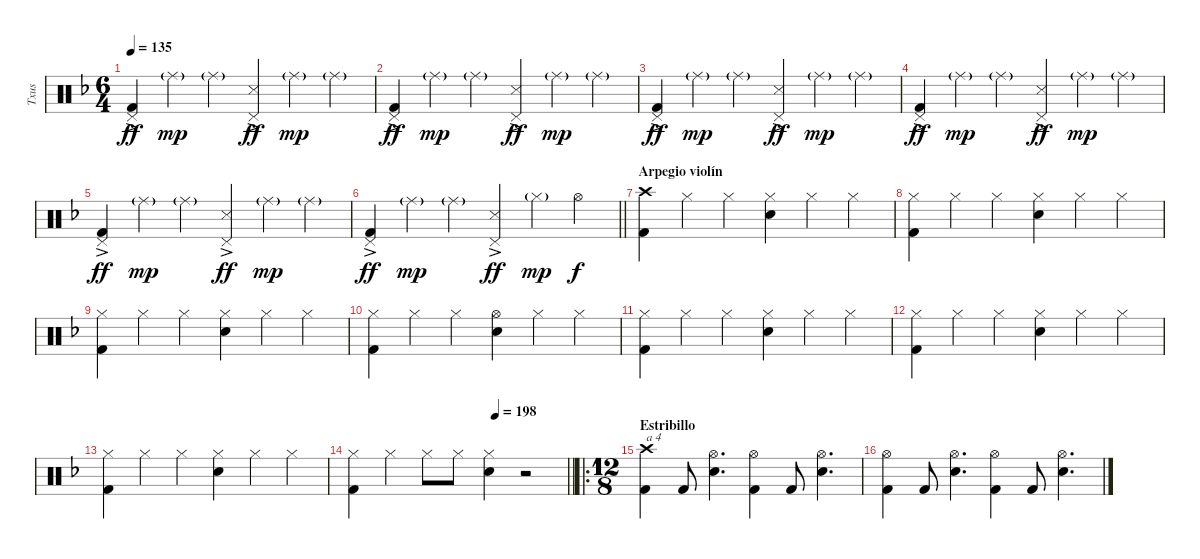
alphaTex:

\track ("Txus" "Txus") {instrument percussion}
\staff {score}
\articulation defaults
\ts (6 4)
\tempo 135
\clef neutral
\ks dminor
("Pedal Hi-Hat (hit)"{ac} "Kick (hit) 2").4{dy ff} "Ride (middle)"{g}.4{dy mp} "Ride (middle)"{g}.4 ("Pedal Hi-Hat (hit)"{ac} "Snare (side stick) 3").4{dy ff} "Ride (middle)"{g}.4{dy mp} "Ride (middle)"{g}.4 |
("Pedal Hi-Hat (hit)"{ac} "Kick (hit) 2").4{dy ff} "Ride (middle)"{g}.4{dy mp} "Ride (middle)"{g}.4 ("Pedal Hi-Hat (hit)"{ac} "Snare (side stick) 3").4{dy ff} "Ride (middle)"{g}.4{dy mp} "Ride (middle)"{g}.4 |
("Pedal Hi-Hat (hit)"{ac} "Kick (hit) 2").4{dy ff} "Ride (middle)"{g}.4{dy mp} "Ride (middle)"{g}.4 ("Pedal Hi-Hat (hit)"{ac} "Snare (side stick) 3").4{dy ff} "Ride (middle)"{g}.4{dy mp} "Ride (middle)"{g}.4 |
("Pedal Hi-Hat (hit)"{ac} "Kick (hit) 2").4{dy ff} "Ride (middle)"{g}.4{dy mp} "Ride (middle)"{g}.4 ("Pedal Hi-Hat (hit)"{ac} "Snare (side stick) 3").4{dy ff} "Ride (middle)"{g}.4{dy mp} "Ride (middle)"{g}.4 |
("Pedal Hi-Hat (hit)"{ac} "Kick (hit) 2").4{dy ff} "Ride (middle)"{g}.4{dy mp} "Ride (middle)"{g}.4 ("Pedal Hi-Hat (hit)"{ac} "Snare (side stick) 3").4{dy ff} "Ride (middle)"{g}.4{dy mp} "Ride (middle)"{g}.4 |
\barLineRight lightlight
("Pedal Hi-Hat (hit)"{ac} "Kick (hit) 2").4{dy ff} "Ride (middle)"{g}.4{dy mp} "Ride (middle)"{g}.4 ("Pedal Hi-Hat (hit)"{ac} "Snare (side stick) 3").4{dy ff} "Hi-Hat (closed)"{g}.4{dy mp} "Hi-Hat (open)".4{dy f} |
\section ("" "Arpegio violín")
("Crash high (hit)" "Kick (hit) 2").4 "Hi-Hat (closed)".4 "Hi-Hat (closed)".4 ("Hi-Hat (closed)" "Snare (hit) 2").4 "Hi-Hat (closed)".4 "Hi-Hat (closed)".4 |
("Hi-Hat (closed)" "Kick (hit) 2").4 "Hi-Hat (closed)".4 "Hi-Hat (closed)".4 ("Hi-Hat (closed)" "Snare (hit) 2").4 "Hi-Hat (closed)".4 "Hi-Hat (closed)".4 |
("Hi-Hat (closed)" "Kick (hit) 2").4 "Hi-Hat (closed)".4 "Hi-Hat (closed)".4 ("Hi-Hat (closed)" "Snare (hit) 2").4 "Hi-Hat (closed)".4 "Hi-Hat (closed)".4 |
("Hi-Hat (closed)" "Kick (hit) 2").4 "Hi-Hat (closed)".4 "Hi-Hat (closed)".4 ("Hi-Hat (open)" "Snare (hit) 2").4 "Hi-Hat (closed)".4 "Hi-Hat (closed)".4 |
("Hi-Hat (closed)" "Kick (hit) 2").4 "Hi-Hat (closed)".4 "Hi-Hat (closed)".4 ("Hi-Hat (closed)" "Snare (hit) 2").4 "Hi-Hat (closed)".4 "Hi-Hat (closed)".4 |
("Hi-Hat (closed)" "Kick (hit) 2").4 "Hi-Hat (closed)".4 "Hi-Hat (closed)".4 ("Hi-Hat (closed)" "Snare (hit) 2").4 "Hi-Hat (closed)".4 "Hi-Hat (closed)".4 |
("Hi-Hat (closed)" "Kick (hit) 2").4 "Hi-Hat (closed)".4 "Hi-Hat (closed)".4 ("Hi-Hat (closed)" "Snare (hit) 2").4 "Hi-Hat (closed)".4 "Hi-Hat (closed)".4 |
\tempo (198 0.6666666666666666)
\barLineRight lightlight
("Hi-Hat (closed)" "Kick (hit) 2").4 "Hi-Hat (closed)".4 "Hi-Hat (closed)".8 "Hi-Hat (closed)".8 ("Hi-Hat (closed)" "Snare (hit) 2").4 r.2 |
\ro
\ts (12 8)
\section ("" "Estribillo")
("Crash high (hit)" "Kick (hit) 2").4{txt "a 4"} "Kick (hit) 2".8 ("Hi-Hat (open)" "Snare (hit) 2").4{d} ("Hi-Hat (open)" "Kick (hit) 2").4 "Kick (hit) 2".8 ("Hi-Hat (open)" "Snare (hit) 2").4{d} |
("Hi-Hat (open)" "Kick (hit) 2").4 "Kick (hit) 2".8 ("Hi-Hat (open)" "Snare (hit) 2").4{d} ("Hi-Hat (open)" "Kick (hit) 2").4 "Kick (hit) 2".8 ("Hi-Hat (open)" "Snare (hit) 2").4{d}
